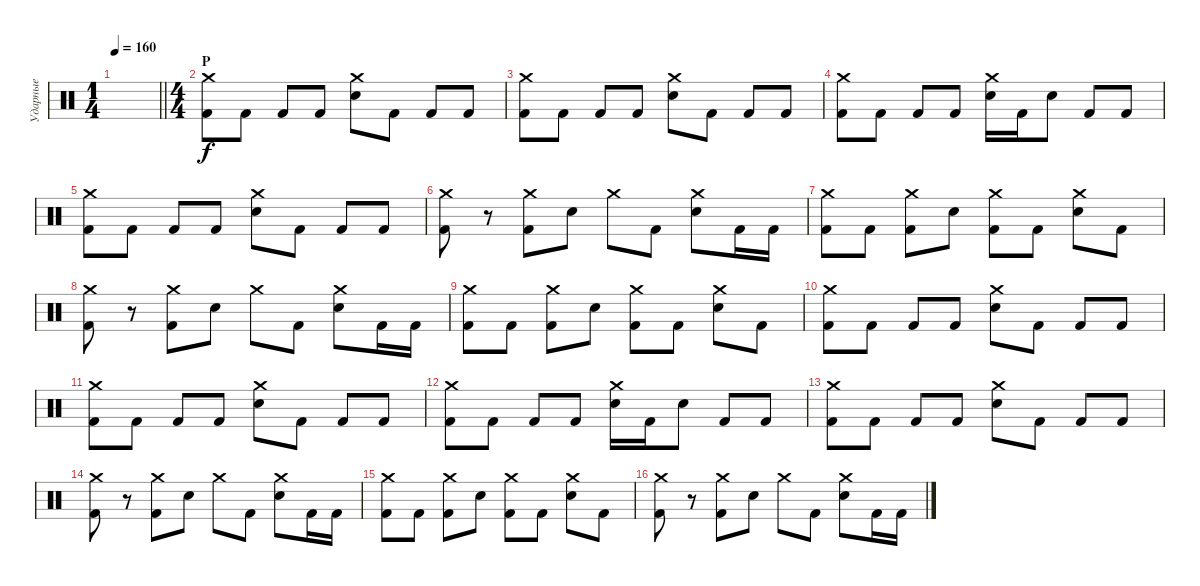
\track ("Ударные" "Ударные") {instrument percussion}
\staff {score}
\articulation defaults
\ts (1 4)
\tempo 160
\clef neutral
\barLineRight lightlight
\ks c
|
\ts (4 4)
\section ("" "P")
("Kick (hit) 2" "Crash medium (hit)").8 "Kick (hit) 2".8 "Kick (hit) 2".8 "Kick (hit) 2".8 ("Snare (hit) 2" "Crash medium (hit)").8 "Kick (hit) 2".8 "Kick (hit) 2".8 "Kick (hit) 2".8 |
("Kick (hit) 2" "Crash medium (hit)").8 "Kick (hit) 2".8 "Kick (hit) 2".8 "Kick (hit) 2".8 ("Snare (hit) 2" "Crash medium (hit)").8 "Kick (hit) 2".8 "Kick (hit) 2".8 "Kick (hit) 2".8 |
("Kick (hit) 2" "Crash medium (hit)").8 "Kick (hit) 2".8 "Kick (hit) 2".8 "Kick (hit) 2".8 ("Snare (hit) 2" "Crash medium (hit)").16 "Kick (hit) 2".16 "Snare (hit) 2".8 "Kick (hit) 2".8 "Kick (hit) 2".8 |
("Kick (hit) 2" "Crash medium (hit)").8 "Kick (hit) 2".8 "Kick (hit) 2".8 "Kick (hit) 2".8 ("Snare (hit) 2" "Crash medium (hit)").8 "Kick (hit) 2".8 "Kick (hit) 2".8 "Kick (hit) 2".8 |
("Kick (hit) 2" "Crash medium (hit)").8 r.8 ("Kick (hit) 2" "Crash medium (hit)").8 "Snare (hit) 2".8 "Crash medium (hit)".8 "Kick (hit) 2".8 ("Snare (hit) 2" "Crash medium (hit)").8 "Kick (hit) 2".16 "Kick (hit) 2".16 |
("Kick (hit) 2" "Crash medium (hit)").8 "Kick (hit) 2".8 ("Kick (hit) 2" "Crash medium (hit)").8 "Snare (hit) 2".8 ("Kick (hit) 2" "Crash medium (hit)").8 "Kick (hit) 2".8 ("Snare (hit) 2" "Crash medium (hit)").8 "Kick (hit) 2".8 |
("Kick (hit) 2" "Crash medium (hit)").8 r.8 ("Kick (hit) 2" "Crash medium (hit)").8 "Snare (hit) 2".8 "Crash medium (hit)".8 "Kick (hit) 2".8 ("Snare (hit) 2" "Crash medium (hit)").8 "Kick (hit) 2".16 "Kick (hit) 2".16 |
("Kick (hit) 2" "Crash medium (hit)").8 "Kick (hit) 2".8 ("Kick (hit) 2" "Crash medium (hit)").8 "Snare (hit) 2".8 ("Kick (hit) 2" "Crash medium (hit)").8 "Kick (hit) 2".8 ("Snare (hit) 2" "Crash medium (hit)").8 "Kick (hit) 2".8 |
("Kick (hit) 2" "Crash medium (hit)").8 "Kick (hit) 2".8 "Kick (hit) 2".8 "Kick (hit) 2".8 ("Snare (hit) 2" "Crash medium (hit)").8 "Kick (hit) 2".8 "Kick (hit) 2".8 "Kick (hit) 2".8 |
("Kick (hit) 2" "Crash medium (hit)").8 "Kick (hit) 2".8 "Kick (hit) 2".8 "Kick (hit) 2".8 ("Snare (hit) 2" "Crash medium (hit)").8 "Kick (hit) 2".8 "Kick (hit) 2".8 "Kick (hit) 2".8 |
("Kick (hit) 2" "Crash medium (hit)").8 "Kick (hit) 2".8 "Kick (hit) 2".8 "Kick (hit) 2".8 ("Snare (hit) 2" "Crash medium (hit)").16 "Kick (hit) 2".16 "Snare (hit) 2".8 "Kick (hit) 2".8 "Kick (hit) 2".8 |
("Kick (hit) 2" "Crash medium (hit)").8 "Kick (hit) 2".8 "Kick (hit) 2".8 "Kick (hit) 2".8 ("Snare (hit) 2" "Crash medium (hit)").8 "Kick (hit) 2".8 "Kick (hit) 2".8 "Kick (hit) 2".8 |
("Kick (hit) 2" "Crash medium (hit)").8 r.8 ("Kick (hit) 2" "Crash medium (hit)").8 "Snare (hit) 2".8 "Crash medium (hit)".8 "Kick (hit) 2".8 ("Snare (hit) 2" "Crash medium (hit)").8 "Kick (hit) 2".16 "Kick (hit) 2".16 |
("Kick (hit) 2" "Crash medium (hit)").8 "Kick (hit) 2".8 ("Kick (hit) 2" "Crash medium (hit)").8 "Snare (hit) 2".8 ("Kick (hit) 2" "Crash medium (hit)").8 "Kick (hit) 2".8 ("Snare (hit) 2" "Crash medium (hit)").8 "Kick (hit) 2".8 |
("Kick (hit) 2" "Crash medium (hit)").8 r.8 ("Kick (hit) 2" "Crash medium (hit)").8 "Snare (hit) 2".8 "Crash medium (hit)".8 "Kick (hit) 2".8 ("Snare (hit) 2" "Crash medium (hit)").8 "Kick (hit) 2".16 "Kick (hit) 2".16
